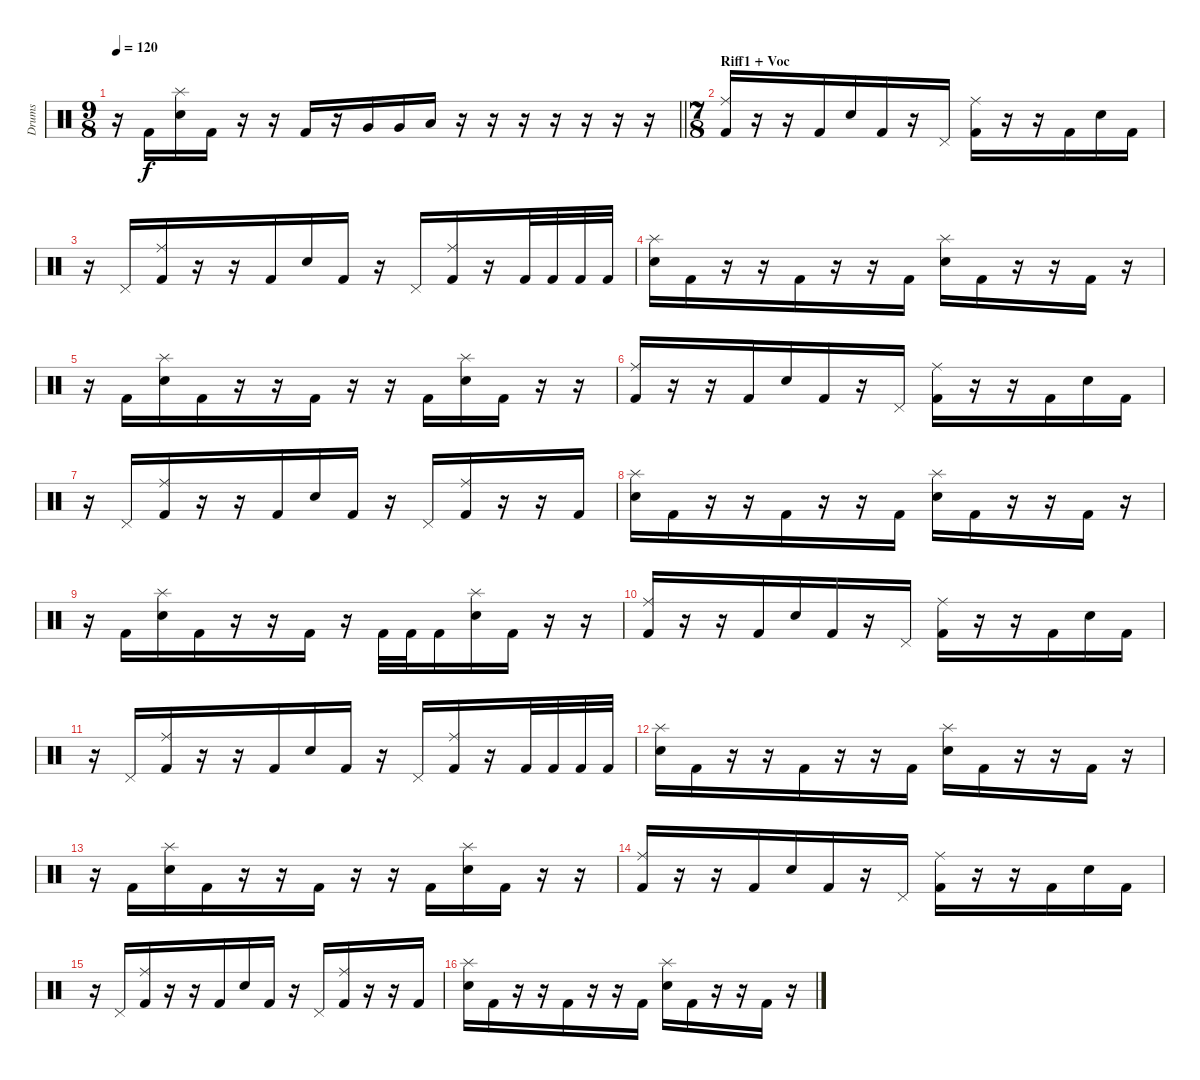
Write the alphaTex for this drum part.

\track ("Drums" "Drums") {instrument percussion}
\staff {score}
\articulation defaults
\ts (9 8)
\tempo 120
\clef neutral
\barLineRight lightlight
\ks c
r.16{dy f} "Kick (hit) 2".16 ("Splash (hit)" "Snare (hit) 2").16 "Kick (hit) 2".16 r.16 r.16 "Kick (hit) 2".16 r.16 "Very Low Tom (hit)".16 "Very Low Tom (hit)".16 "Low Floor Tom (hit)".16 r.16 r.16 r.16 r.16 r.16 r.16 r.16 |
\ts (7 8)
\section ("" "Riff1 + Voc")
("Ride (middle)" "Kick (hit) 2").16 r.16 r.16 "Kick (hit) 2".16 "Snare (hit) 2".16 "Kick (hit) 2".16 r.16 "Pedal Hi-Hat (hit)".16 ("Ride (middle)" "Kick (hit) 2").16 r.16 r.16 "Kick (hit) 2".16 "Snare (hit) 2".16 "Kick (hit) 2".16 |
r.16 "Pedal Hi-Hat (hit)".16 ("Ride (middle)" "Kick (hit) 2").16 r.16 r.16 "Kick (hit) 2".16 "Snare (hit) 2".16 "Kick (hit) 2".16 r.16 "Pedal Hi-Hat (hit)".16 ("Ride (middle)" "Kick (hit) 2").16 r.16 "Kick (hit) 2".32 "Kick (hit) 2".32 "Kick (hit) 2".32 "Kick (hit) 2".32 |
("Splash (hit)" "Snare (hit) 2").16 "Kick (hit) 2".16 r.16 r.16 "Kick (hit) 2".16 r.16 r.16 "Kick (hit) 2".16 ("Splash (hit)" "Snare (hit) 2").16 "Kick (hit) 2".16 r.16 r.16 "Kick (hit) 2".16 r.16 |
r.16 "Kick (hit) 2".16 ("Splash (hit)" "Snare (hit) 2").16 "Kick (hit) 2".16 r.16 r.16 "Kick (hit) 2".16 r.16 r.16 "Kick (hit) 2".16 ("Splash (hit)" "Snare (hit) 2").16 "Kick (hit) 2".16 r.16 r.16 |
("Ride (middle)" "Kick (hit) 2").16 r.16 r.16 "Kick (hit) 2".16 "Snare (hit) 2".16 "Kick (hit) 2".16 r.16 "Pedal Hi-Hat (hit)".16 ("Ride (middle)" "Kick (hit) 2").16 r.16 r.16 "Kick (hit) 2".16 "Snare (hit) 2".16 "Kick (hit) 2".16 |
r.16 "Pedal Hi-Hat (hit)".16 ("Ride (middle)" "Kick (hit) 2").16 r.16 r.16 "Kick (hit) 2".16 "Snare (hit) 2".16 "Kick (hit) 2".16 r.16 "Pedal Hi-Hat (hit)".16 ("Ride (middle)" "Kick (hit) 2").16 r.16 r.16 "Kick (hit) 2".16 |
("Splash (hit)" "Snare (hit) 2").16 "Kick (hit) 2".16 r.16 r.16 "Kick (hit) 2".16 r.16 r.16 "Kick (hit) 2".16 ("Splash (hit)" "Snare (hit) 2").16 "Kick (hit) 2".16 r.16 r.16 "Kick (hit) 2".16 r.16 |
r.16 "Kick (hit) 2".16 ("Splash (hit)" "Snare (hit) 2").16 "Kick (hit) 2".16 r.16 r.16 "Kick (hit) 2".16 r.16 "Kick (hit) 2".32 "Kick (hit) 2".32 "Kick (hit) 2".16 ("Splash (hit)" "Snare (hit) 2").16 "Kick (hit) 2".16 r.16 r.16 |
("Ride (middle)" "Kick (hit) 2").16 r.16 r.16 "Kick (hit) 2".16 "Snare (hit) 2".16 "Kick (hit) 2".16 r.16 "Pedal Hi-Hat (hit)".16 ("Ride (middle)" "Kick (hit) 2").16 r.16 r.16 "Kick (hit) 2".16 "Snare (hit) 2".16 "Kick (hit) 2".16 |
r.16 "Pedal Hi-Hat (hit)".16 ("Ride (middle)" "Kick (hit) 2").16 r.16 r.16 "Kick (hit) 2".16 "Snare (hit) 2".16 "Kick (hit) 2".16 r.16 "Pedal Hi-Hat (hit)".16 ("Ride (middle)" "Kick (hit) 2").16 r.16 "Kick (hit) 2".32 "Kick (hit) 2".32 "Kick (hit) 2".32 "Kick (hit) 2".32 |
("Splash (hit)" "Snare (hit) 2").16 "Kick (hit) 2".16 r.16 r.16 "Kick (hit) 2".16 r.16 r.16 "Kick (hit) 2".16 ("Splash (hit)" "Snare (hit) 2").16 "Kick (hit) 2".16 r.16 r.16 "Kick (hit) 2".16 r.16 |
r.16 "Kick (hit) 2".16 ("Splash (hit)" "Snare (hit) 2").16 "Kick (hit) 2".16 r.16 r.16 "Kick (hit) 2".16 r.16 r.16 "Kick (hit) 2".16 ("Splash (hit)" "Snare (hit) 2").16 "Kick (hit) 2".16 r.16 r.16 |
("Ride (middle)" "Kick (hit) 2").16 r.16 r.16 "Kick (hit) 2".16 "Snare (hit) 2".16 "Kick (hit) 2".16 r.16 "Pedal Hi-Hat (hit)".16 ("Ride (middle)" "Kick (hit) 2").16 r.16 r.16 "Kick (hit) 2".16 "Snare (hit) 2".16 "Kick (hit) 2".16 |
r.16 "Pedal Hi-Hat (hit)".16 ("Ride (middle)" "Kick (hit) 2").16 r.16 r.16 "Kick (hit) 2".16 "Snare (hit) 2".16 "Kick (hit) 2".16 r.16 "Pedal Hi-Hat (hit)".16 ("Ride (middle)" "Kick (hit) 2").16 r.16 r.16 "Kick (hit) 2".16 |
("Splash (hit)" "Snare (hit) 2").16 "Kick (hit) 2".16 r.16 r.16 "Kick (hit) 2".16 r.16 r.16 "Kick (hit) 2".16 ("Splash (hit)" "Snare (hit) 2").16 "Kick (hit) 2".16 r.16 r.16 "Kick (hit) 2".16 r.16
